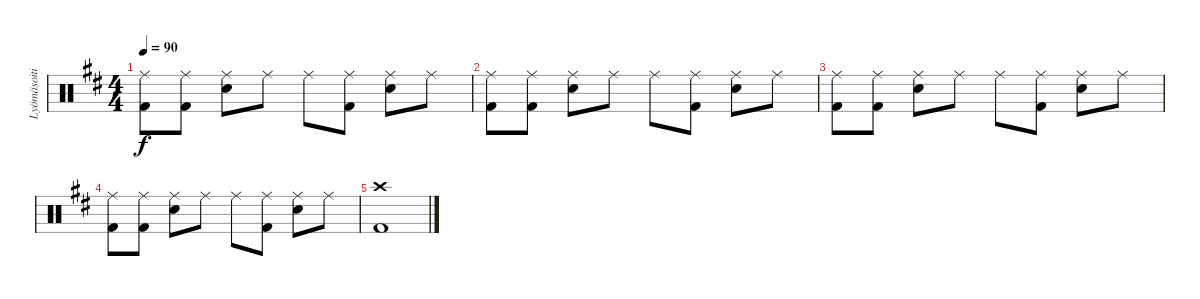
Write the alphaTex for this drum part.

\track ("Lyömäsoitin" "Lyömäsoiti") {instrument percussion}
\staff {score}
\articulation defaults
\ts (4 4)
\tempo 90
\clef neutral
\ks d
("Ride (middle)" "Kick (hit) 2").8{dy f} ("Ride (middle)" "Kick (hit) 2").8 ("Ride (middle)" "Snare (hit) 2").8 "Ride (middle)".8 "Ride (middle)".8 ("Ride (middle)" "Kick (hit) 2").8 ("Ride (middle)" "Snare (hit) 2").8 "Ride (middle)".8 |
("Ride (middle)" "Kick (hit) 2").8 ("Ride (middle)" "Kick (hit) 2").8 ("Ride (middle)" "Snare (hit) 2").8 "Ride (middle)".8 "Ride (middle)".8 ("Ride (middle)" "Kick (hit) 2").8 ("Ride (middle)" "Snare (hit) 2").8 "Ride (middle)".8 |
("Ride (middle)" "Kick (hit) 2").8 ("Ride (middle)" "Kick (hit) 2").8 ("Ride (middle)" "Snare (hit) 2").8 "Ride (middle)".8 "Ride (middle)".8 ("Ride (middle)" "Kick (hit) 2").8 ("Ride (middle)" "Snare (hit) 2").8 "Ride (middle)".8 |
("Ride (middle)" "Kick (hit) 2").8 ("Ride (middle)" "Kick (hit) 2").8 ("Ride (middle)" "Snare (hit) 2").8 "Ride (middle)".8 "Ride (middle)".8 ("Ride (middle)" "Kick (hit) 2").8 ("Ride (middle)" "Snare (hit) 2").8 "Ride (middle)".8 |
("Crash high (hit)" "Kick (hit) 2").1
